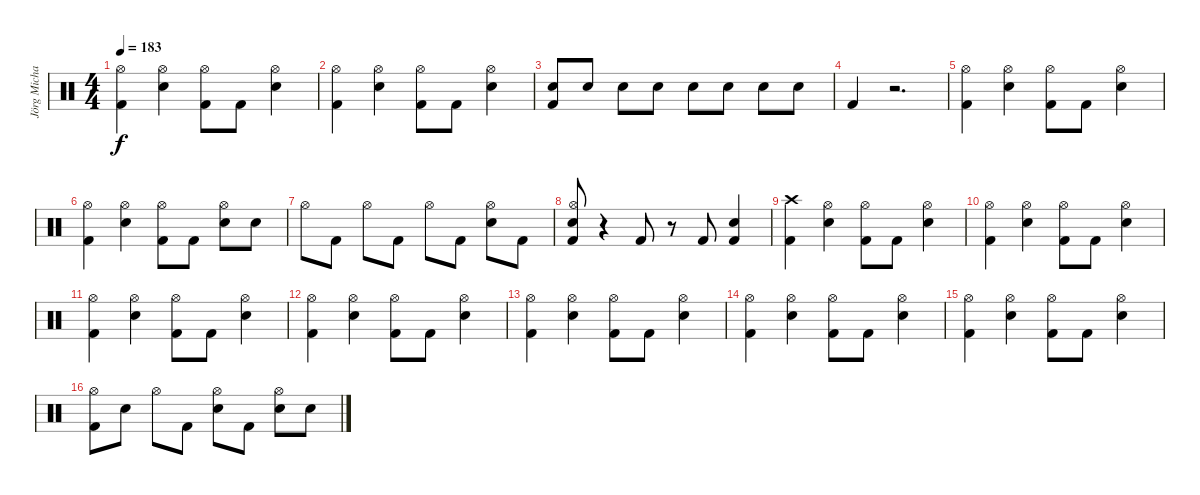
\track ("Jörg Michael" "Jörg Micha") {instrument percussion}
\staff {score}
\articulation defaults
\ts (4 4)
\tempo 183
\clef neutral
\ks c
("Kick (hit) 2" "Hi-Hat (open)").4{dy f} ("Snare (hit) 2" "Hi-Hat (open)").4 ("Kick (hit) 2" "Hi-Hat (open)").8 "Kick (hit) 2".8 ("Snare (hit) 2" "Hi-Hat (open)").4 |
("Kick (hit) 2" "Hi-Hat (open)").4 ("Snare (hit) 2" "Hi-Hat (open)").4 ("Kick (hit) 2" "Hi-Hat (open)").8 "Kick (hit) 2".8 ("Snare (hit) 2" "Hi-Hat (open)").4 |
("Snare (hit) 2" "Kick (hit) 2").8 "Snare (hit) 2".8 "Snare (hit) 2".8 "Snare (hit) 2".8 "Snare (hit) 2".8 "Snare (hit) 2".8 "Snare (hit) 2".8 "Snare (hit) 2".8 |
"Kick (hit) 2".4 r.2{d} |
("Hi-Hat (open)" "Kick (hit) 2").4 ("Hi-Hat (open)" "Snare (hit) 2").4 ("Hi-Hat (open)" "Kick (hit) 2").8 "Kick (hit) 2".8 ("Hi-Hat (open)" "Snare (hit) 2").4 |
("Hi-Hat (open)" "Kick (hit) 2").4 ("Hi-Hat (open)" "Snare (hit) 2").4 ("Hi-Hat (open)" "Kick (hit) 2").8 "Kick (hit) 2".8 ("Hi-Hat (open)" "Snare (hit) 2").8 "Snare (hit) 2".8 |
"Hi-Hat (open)".8 "Kick (hit) 2".8 "Hi-Hat (open)".8 "Kick (hit) 2".8 "Hi-Hat (open)".8 "Kick (hit) 2".8 ("Snare (hit) 2" "Hi-Hat (open)").8 "Kick (hit) 2".8 |
("Kick (hit) 2" "Snare (hit) 2" "Hi-Hat (open)").8 r.4 "Kick (hit) 2".8 r.8 "Kick (hit) 2".8 ("Kick (hit) 2" "Snare (hit) 2").4 |
("Kick (hit) 2" "Crash high (hit)").4 ("Snare (hit) 2" "Hi-Hat (open)").4 ("Kick (hit) 2" "Hi-Hat (open)").8 "Kick (hit) 2".8 ("Snare (hit) 2" "Hi-Hat (open)").4 |
("Kick (hit) 2" "Hi-Hat (open)").4 ("Snare (hit) 2" "Hi-Hat (open)").4 ("Kick (hit) 2" "Hi-Hat (open)").8 "Kick (hit) 2".8 ("Snare (hit) 2" "Hi-Hat (open)").4 |
("Kick (hit) 2" "Hi-Hat (open)").4 ("Snare (hit) 2" "Hi-Hat (open)").4 ("Kick (hit) 2" "Hi-Hat (open)").8 "Kick (hit) 2".8 ("Snare (hit) 2" "Hi-Hat (open)").4 |
("Kick (hit) 2" "Hi-Hat (open)").4 ("Snare (hit) 2" "Hi-Hat (open)").4 ("Kick (hit) 2" "Hi-Hat (open)").8 "Kick (hit) 2".8 ("Snare (hit) 2" "Hi-Hat (open)").4 |
("Kick (hit) 2" "Hi-Hat (open)").4 ("Snare (hit) 2" "Hi-Hat (open)").4 ("Kick (hit) 2" "Hi-Hat (open)").8 "Kick (hit) 2".8 ("Snare (hit) 2" "Hi-Hat (open)").4 |
("Kick (hit) 2" "Hi-Hat (open)").4 ("Snare (hit) 2" "Hi-Hat (open)").4 ("Kick (hit) 2" "Hi-Hat (open)").8 "Kick (hit) 2".8 ("Snare (hit) 2" "Hi-Hat (open)").4 |
("Kick (hit) 2" "Hi-Hat (open)").4 ("Snare (hit) 2" "Hi-Hat (open)").4 ("Kick (hit) 2" "Hi-Hat (open)").8 "Kick (hit) 2".8 ("Snare (hit) 2" "Hi-Hat (open)").4 |
("Hi-Hat (open)" "Kick (hit) 2").8 "Snare (hit) 2".8 "Hi-Hat (open)".8 "Kick (hit) 2".8 ("Snare (hit) 2" "Hi-Hat (open)").8 "Kick (hit) 2".8 ("Snare (hit) 2" "Hi-Hat (open)").8 "Snare (hit) 2".8
